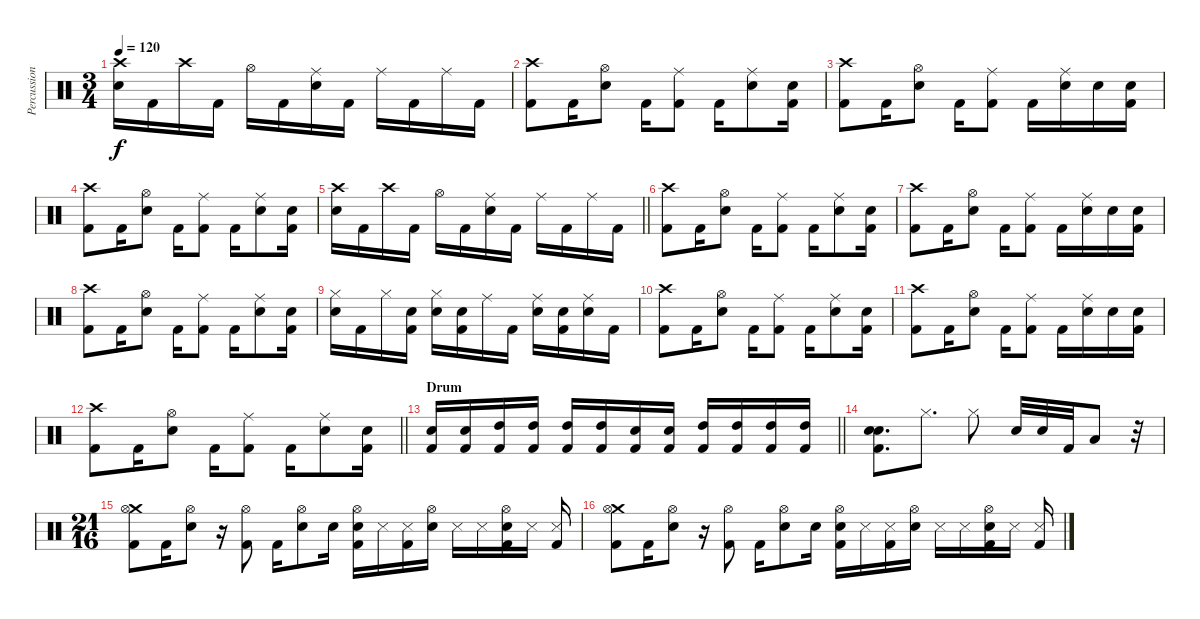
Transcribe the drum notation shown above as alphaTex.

\track ("Percussion" "Percussion") {instrument percussion}
\staff {score}
\articulation defaults
\ts (3 4)
\tempo 120
\clef neutral
\ks c
("Crash high (hit)" "Snare (hit) 2").16{dy f} "Kick (hit) 2".16 "Crash high (hit)".16 "Kick (hit) 2".16 "Hi-Hat (open)".16 "Kick (hit) 2".16 ("Ride (middle)" "Snare (hit) 2").16 "Kick (hit) 2".16 "Ride (middle)".16 "Kick (hit) 2".16 "Ride (middle)".16 "Kick (hit) 2".16 |
("Crash high (hit)" "Kick (hit) 2").8 "Kick (hit) 2".16 ("Hi-Hat (open)" "Snare (hit) 2").8 "Kick (hit) 2".16 ("Ride (middle)" "Kick (hit) 2").8 "Kick (hit) 2".16 ("Ride (middle)" "Snare (hit) 2").8 ("Snare (hit) 2" "Kick (hit) 2").16 |
("Crash high (hit)" "Kick (hit) 2").8 "Kick (hit) 2".16 ("Hi-Hat (open)" "Snare (hit) 2").8 "Kick (hit) 2".16 ("Ride (middle)" "Kick (hit) 2").8 "Kick (hit) 2".16 ("Ride (middle)" "Snare (hit) 2").16 "Snare (hit) 2".16 ("Snare (hit) 2" "Kick (hit) 2").16 |
("Crash high (hit)" "Kick (hit) 2").8 "Kick (hit) 2".16 ("Hi-Hat (open)" "Snare (hit) 2").8 "Kick (hit) 2".16 ("Ride (middle)" "Kick (hit) 2").8 "Kick (hit) 2".16 ("Ride (middle)" "Snare (hit) 2").8 ("Snare (hit) 2" "Kick (hit) 2").16 |
\barLineRight lightlight
("Crash high (hit)" "Snare (hit) 2").16 "Kick (hit) 2".16 "Crash high (hit)".16 "Kick (hit) 2".16 "Hi-Hat (open)".16 "Kick (hit) 2".16 ("Ride (middle)" "Snare (hit) 2").16 "Kick (hit) 2".16 "Ride (middle)".16 "Kick (hit) 2".16 "Ride (middle)".16 "Kick (hit) 2".16 |
("Crash high (hit)" "Kick (hit) 2").8 "Kick (hit) 2".16 ("Hi-Hat (open)" "Snare (hit) 2").8 "Kick (hit) 2".16 ("Ride (middle)" "Kick (hit) 2").8 "Kick (hit) 2".16 ("Ride (middle)" "Snare (hit) 2").8 ("Snare (hit) 2" "Kick (hit) 2").16 |
("Crash high (hit)" "Kick (hit) 2").8 "Kick (hit) 2".16 ("Hi-Hat (open)" "Snare (hit) 2").8 "Kick (hit) 2".16 ("Ride (middle)" "Kick (hit) 2").8 "Kick (hit) 2".16 ("Ride (middle)" "Snare (hit) 2").16 "Snare (hit) 2".16 ("Snare (hit) 2" "Kick (hit) 2").16 |
("Crash high (hit)" "Kick (hit) 2").8 "Kick (hit) 2".16 ("Hi-Hat (open)" "Snare (hit) 2").8 "Kick (hit) 2".16 ("Ride (middle)" "Kick (hit) 2").8 "Kick (hit) 2".16 ("Ride (middle)" "Snare (hit) 2").8 ("Snare (hit) 2" "Kick (hit) 2").16 |
("Hi-Hat (closed)" "Snare (hit) 2").16 "Kick (hit) 2".16 "Hi-Hat (closed)".16 ("Snare (hit) 2" "Kick (hit) 2").16 ("Hi-Hat (closed)" "Snare (hit) 2").16 ("Snare (hit) 2" "Kick (hit) 2").16 "Ride (middle)".16 "Kick (hit) 2".16 ("Ride (middle)" "Snare (hit) 2").16 ("Snare (hit) 2" "Kick (hit) 2").16 ("Ride (middle)" "Snare (hit) 2").16 "Kick (hit) 2".16 |
("Crash high (hit)" "Kick (hit) 2").8 "Kick (hit) 2".16 ("Hi-Hat (open)" "Snare (hit) 2").8 "Kick (hit) 2".16 ("Ride (middle)" "Kick (hit) 2").8 "Kick (hit) 2".16 ("Ride (middle)" "Snare (hit) 2").8 ("Snare (hit) 2" "Kick (hit) 2").16 |
("Crash high (hit)" "Kick (hit) 2").8 "Kick (hit) 2".16 ("Hi-Hat (open)" "Snare (hit) 2").8 "Kick (hit) 2".16 ("Ride (middle)" "Kick (hit) 2").8 "Kick (hit) 2".16 ("Ride (middle)" "Snare (hit) 2").16 "Snare (hit) 2".16 ("Snare (hit) 2" "Kick (hit) 2").16 |
\barLineRight lightlight
("Crash high (hit)" "Kick (hit) 2").8 "Kick (hit) 2".16 ("Hi-Hat (open)" "Snare (hit) 2").8 "Kick (hit) 2".16 ("Ride (middle)" "Kick (hit) 2").8 "Kick (hit) 2".16 ("Ride (middle)" "Snare (hit) 2").8 ("Snare (hit) 2" "Kick (hit) 2").16 |
\section ("" "Drum ")
\barLineRight lightlight
("Snare (hit) 2" "Kick (hit) 2").16 ("Snare (hit) 2" "Kick (hit) 2").16 ("High Tom (hit)" "Kick (hit) 2").16 ("High Tom (hit)" "Kick (hit) 2").16 ("High Tom (hit)" "Kick (hit) 2").16 ("High Tom (hit)" "Kick (hit) 2").16 ("Snare (hit) 2" "Kick (hit) 2").16 ("Snare (hit) 2" "Kick (hit) 2").16 ("High Tom (hit)" "Kick (hit) 2").16 ("High Tom (hit)" "Kick (hit) 2").16 ("High Tom (hit)" "Kick (hit) 2").16 ("High Tom (hit)" "Kick (hit) 2").16 |
("Snare (hit) 2" "Snare (hit) 2" "Kick (hit) 2").8{d} "Hi-Hat (closed)".8{d} "Hi-Hat (closed)".8 "Snare (hit) 2".32 "Snare (hit) 2".32 "Kick (hit) 2".32 "Low Tom (hit)".8 r.32 |
\ts (21 16)
("Crash medium (hit)" "Hi-Hat (open)" "Kick (hit) 2").8 "Kick (hit) 2".16 ("Hi-Hat (open)" "Snare (hit) 2").8 r.16 ("Hi-Hat (open)" "Kick (hit) 2").8 "Kick (hit) 2".16 ("Hi-Hat (open)" "Snare (hit) 2").8 "Snare (hit) 2".16 ("Hi-Hat (open)" "Snare (hit) 2" "Kick (hit) 2").16 "Snare (side stick) 3".16 ("Snare (side stick) 3" "Kick (hit) 2").16 ("Hi-Hat (open)" "Snare (hit) 2").16 "Snare (side stick) 3".16 "Snare (side stick) 3".16 ("Hi-Hat (open)" "Snare (hit) 2" "Kick (hit) 2").16 "Snare (side stick) 3".16 ("Snare (side stick) 3" "Kick (hit) 2").16 |
("Crash medium (hit)" "Hi-Hat (open)" "Kick (hit) 2").8 "Kick (hit) 2".16 ("Hi-Hat (open)" "Snare (hit) 2").8 r.16 ("Hi-Hat (open)" "Kick (hit) 2").8 "Kick (hit) 2".16 ("Hi-Hat (open)" "Snare (hit) 2").8 "Snare (hit) 2".16 ("Hi-Hat (open)" "Snare (hit) 2" "Kick (hit) 2").16 "Snare (side stick) 3".16 ("Snare (side stick) 3" "Kick (hit) 2").16 ("Hi-Hat (open)" "Snare (hit) 2").16 "Snare (side stick) 3".16 "Snare (side stick) 3".16 ("Hi-Hat (open)" "Snare (hit) 2" "Kick (hit) 2").16 "Snare (side stick) 3".16 ("Snare (side stick) 3" "Kick (hit) 2").16
